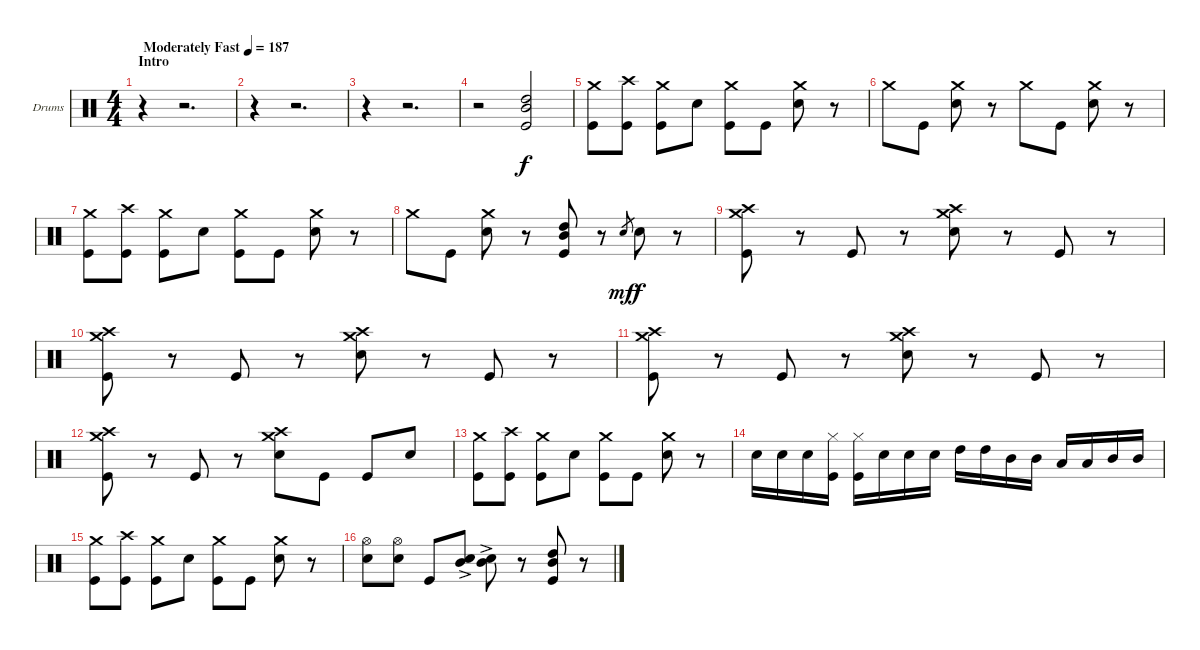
\bracketExtendMode groupsimilarinstruments
\firstSystemTrackNameOrientation horizontal
\otherSystemsTrackNameOrientation horizontal
\track ("Rian Dawson" "Drums") {instrument percussion}
\staff {score}
\articulation defaults
\ts (4 4)
\beaming (8 2 2 2 2)
\section ("" "Intro")
\tempo (187 "Moderately Fast")
\clef neutral
\ks c
r.4{dy f} r.2{d} |
r.4 r.2{d} |
r.4 r.2{d} |
r.2 ("High Tom (hit)" "Mid Tom (hit)" "Kick (hit)").2 |
("Crash medium (hit)" "Kick (hit)").8 ("Crash high (hit)" "Kick (hit)").8 ("Crash medium (hit)" "Kick (hit)").8 "Snare (hit) 2".8 ("Crash medium (hit)" "Kick (hit)").8 "Kick (hit)".8 ("Crash medium (hit)" "Snare (hit) 2").8 r.8 |
"Crash medium (hit)".8 "Kick (hit)".8 ("Crash medium (hit)" "Snare (hit) 2").8 r.8 "Crash medium (hit)".8 "Kick (hit)".8 ("Crash medium (hit)" "Snare (hit) 2").8 r.8 |
("Crash medium (hit)" "Kick (hit)").8 ("Crash high (hit)" "Kick (hit)").8 ("Crash medium (hit)" "Kick (hit)").8 "Snare (hit) 2".8 ("Crash medium (hit)" "Kick (hit)").8 "Kick (hit)".8 ("Crash medium (hit)" "Snare (hit) 2").8 r.8 |
"Crash medium (hit)".8 "Kick (hit)".8 ("Crash medium (hit)" "Snare (hit) 2").8 r.8 ("High Tom (hit)" "Mid Tom (hit)" "Kick (hit)").8 r.8 "Snare (hit) 2".8{gr dy mf} "Snare (hit) 2".8{dy f} r.8 |
("Crash medium (hit)" "Crash high (hit)" "Kick (hit)").8 r.8 "Kick (hit)".8 r.8 ("Crash medium (hit)" "Crash high (hit)" "Snare (hit) 2").8 r.8 "Kick (hit)".8 r.8 |
("Crash medium (hit)" "Crash high (hit)" "Kick (hit)").8 r.8 "Kick (hit)".8 r.8 ("Crash medium (hit)" "Crash high (hit)" "Snare (hit) 2").8 r.8 "Kick (hit)".8 r.8 |
("Crash medium (hit)" "Crash high (hit)" "Kick (hit)").8 r.8 "Kick (hit)".8 r.8 ("Crash medium (hit)" "Crash high (hit)" "Snare (hit) 2").8 r.8 "Kick (hit)".8 r.8 |
("Crash medium (hit)" "Crash high (hit)" "Kick (hit)").8 r.8 "Kick (hit)".8 r.8 ("Crash medium (hit)" "Crash high (hit)" "Snare (hit) 2").8 "Kick (hit)".8 "Kick (hit)".8 "Snare (hit) 2".8 |
("Crash medium (hit)" "Kick (hit)").8 ("Crash high (hit)" "Kick (hit)").8 ("Crash medium (hit)" "Kick (hit)").8 "Snare (hit) 2".8 ("Crash medium (hit)" "Kick (hit)").8 "Kick (hit)".8 ("Crash medium (hit)" "Snare (hit) 2").8 r.8 |
"Snare (hit) 2".16 "Snare (hit) 2".16 "Snare (hit) 2".16 ("Hi-Hat (closed)" "Kick (hit)").16 ("Hi-Hat (closed)" "Kick (hit)").16 "Snare (hit) 2".16 "Snare (hit) 2".16 "Snare (hit) 2".16 "High Tom (hit)".16 "High Tom (hit)".16 "Mid Tom (hit)".16 "Mid Tom (hit)".16 "Low Tom (hit)".16 "Low Tom (hit)".16 "Mid Tom (hit)".16 "Mid Tom (hit)".16 |
("Crash medium (hit)" "Kick (hit)").8 ("Crash high (hit)" "Kick (hit)").8 ("Crash medium (hit)" "Kick (hit)").8 "Snare (hit) 2".8 ("Crash medium (hit)" "Kick (hit)").8 "Kick (hit)".8 ("Crash medium (hit)" "Snare (hit) 2").8 r.8 |
("Hi-Hat (open)" "Snare (hit) 2").8 ("Hi-Hat (open)" "Snare (hit) 2").8 "Kick (hit)".8 ("Snare (hit) 2" "Mid Tom (hit)"{ac}).8 ("Snare (hit) 2" "Mid Tom (hit)"{ac}).8 r.8 ("High Tom (hit)" "Mid Tom (hit)" "Kick (hit)").8 r.8
